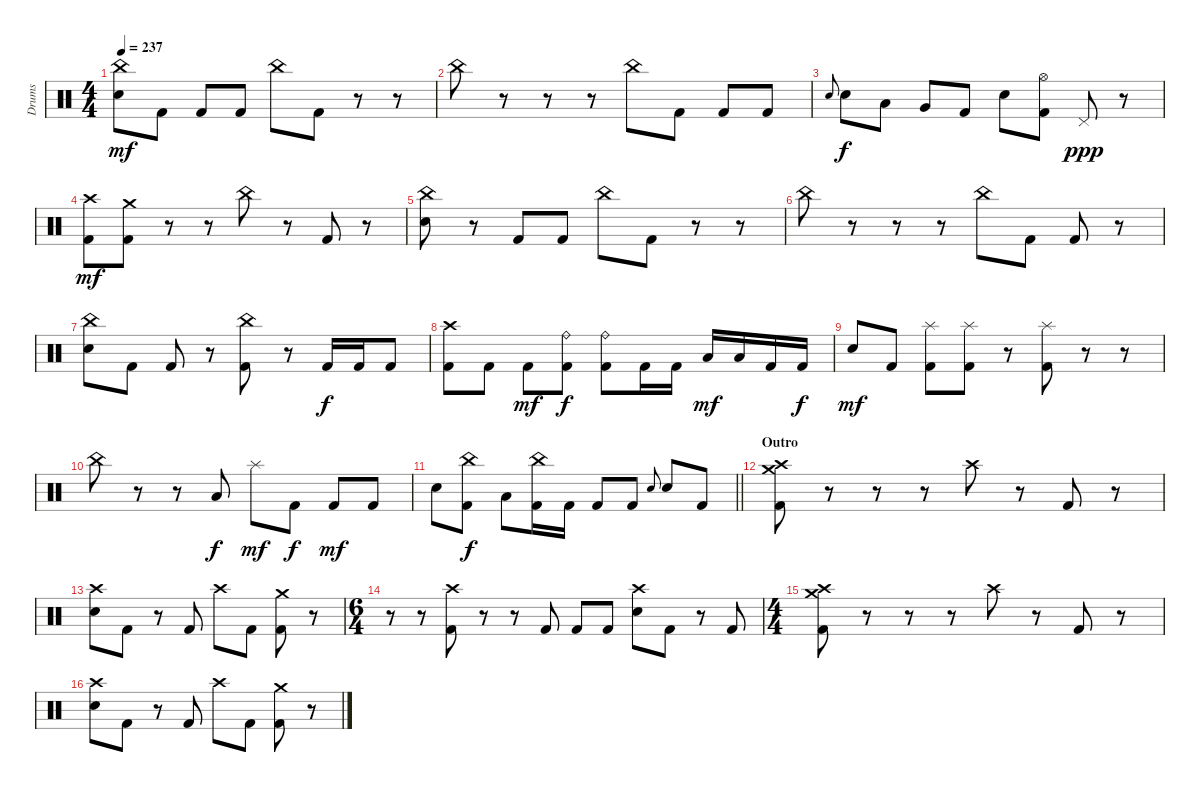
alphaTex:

\track ("Drums" "Drums") {instrument percussion}
\staff {score}
\articulation defaults
\ts (4 4)
\tempo 237
\clef neutral
\ks c
("China (hit)" "Electric Snare (hit)").8{dy mf} "Kick (hit) 2".8 "Kick (hit) 2".8 "Kick (hit) 2".8 "China (hit)".8 "Kick (hit) 2".8 r.8 r.8 |
"China (hit)".8 r.8 r.8 r.8 "China (hit)".8 "Kick (hit) 2".8 "Kick (hit) 2".8 "Kick (hit) 2".8 |
"Electric Snare (hit)".8{gr onbeat} "Electric Snare (hit)".8{dy f} "Low Tom (hit)".8 "Very Low Tom (hit)".8 "Kick (hit) 2".8 "Electric Snare (hit)".8 ("Hi-Hat (open)" "Kick (hit) 2").8 "Pedal Hi-Hat (hit)".8{dy ppp} r.8 |
("Crash high (hit)" "Kick (hit) 2").8{dy mf} ("Crash medium (hit)" "Kick (hit) 2").8 r.8 r.8 "China (hit)".8 r.8 "Kick (hit) 2".8 r.8 |
("China (hit)" "Electric Snare (hit)").8 r.8 "Kick (hit) 2".8 "Kick (hit) 2".8 "China (hit)".8 "Kick (hit) 2".8 r.8 r.8 |
"China (hit)".8 r.8 r.8 r.8 "China (hit)".8 "Kick (hit) 2".8 "Kick (hit) 2".8 r.8 |
("China (hit)" "Electric Snare (hit)").8 "Kick (hit) 2".8 "Kick (hit) 2".8 r.8 ("China (hit)" "Kick (hit) 2").8 r.8 "Kick (hit) 2".16{dy f} "Kick (hit) 2".16 "Kick (hit) 2".8 |
("Crash high (hit)" "Kick (hit) 2").8 "Kick (hit) 2".8 "Kick (hit) 2".8{dy mf} ("Ride (bell)" "Kick (hit) 2").8{dy f} ("Ride (bell)" "Kick (hit) 2").8 "Kick (hit) 2".16 "Kick (hit) 2".16 "Low Floor Tom (hit)".16{dy mf} "Low Floor Tom (hit)".16 "Kick (hit) 2".16 "Kick (hit) 2".16{dy f} |
"Electric Snare (hit)".8{dy mf} "Kick (hit) 2".8 ("Splash (hit)" "Kick (hit) 2").8 ("Splash (hit)" "Kick (hit) 2").8 r.8 ("Splash (hit)" "Kick (hit) 2").8 r.8 r.8 |
"China (hit)".8 r.8 r.8 "Low Tom (hit)".8{dy f} "Splash (hit)".8{dy mf} "Kick (hit) 2".8{dy f} "Kick (hit) 2".8{dy mf} "Kick (hit) 2".8 |
\barLineRight lightlight "Electric Snare (hit)".8
("China (hit)" "Kick (hit) 2").8{dy f} "Low Tom (hit)".8 ("China (hit)" "Kick (hit) 2").16 "Kick (hit) 2".16 "Kick (hit) 2".8 "Kick (hit) 2".8 "Electric Snare (hit)".8{gr onbeat} "Electric Snare (hit)".8 "Kick (hit) 2".8 |
\section ("" "Outro")
("Crash high (hit)" "Crash medium (hit)" "Kick (hit) 2").8 r.8 r.8 r.8 "Crash high (hit)".8 r.8 "Kick (hit) 2".8 r.8 |
("Crash high (hit)" "Electric Snare (hit)").8 "Kick (hit) 2".8 r.8 "Kick (hit) 2".8 "Crash high (hit)".8 "Kick (hit) 2".8 ("Crash medium (hit)" "Kick (hit) 2").8 r.8 |
\ts (6 4)
r.8 r.8 ("Crash high (hit)" "Kick (hit) 2").8 r.8 r.8 "Kick (hit) 2".8 "Kick (hit) 2".8 "Kick (hit) 2".8 ("Crash high (hit)" "Electric Snare (hit)").8 "Kick (hit) 2".8 r.8 "Kick (hit) 2".8 |
\ts (4 4)
("Crash high (hit)" "Crash medium (hit)" "Kick (hit) 2").8 r.8 r.8 r.8 "Crash high (hit)".8 r.8 "Kick (hit) 2".8 r.8 |
("Crash high (hit)" "Electric Snare (hit)").8 "Kick (hit) 2".8 r.8 "Kick (hit) 2".8 "Crash high (hit)".8 "Kick (hit) 2".8 ("Crash medium (hit)" "Kick (hit) 2").8 r.8
